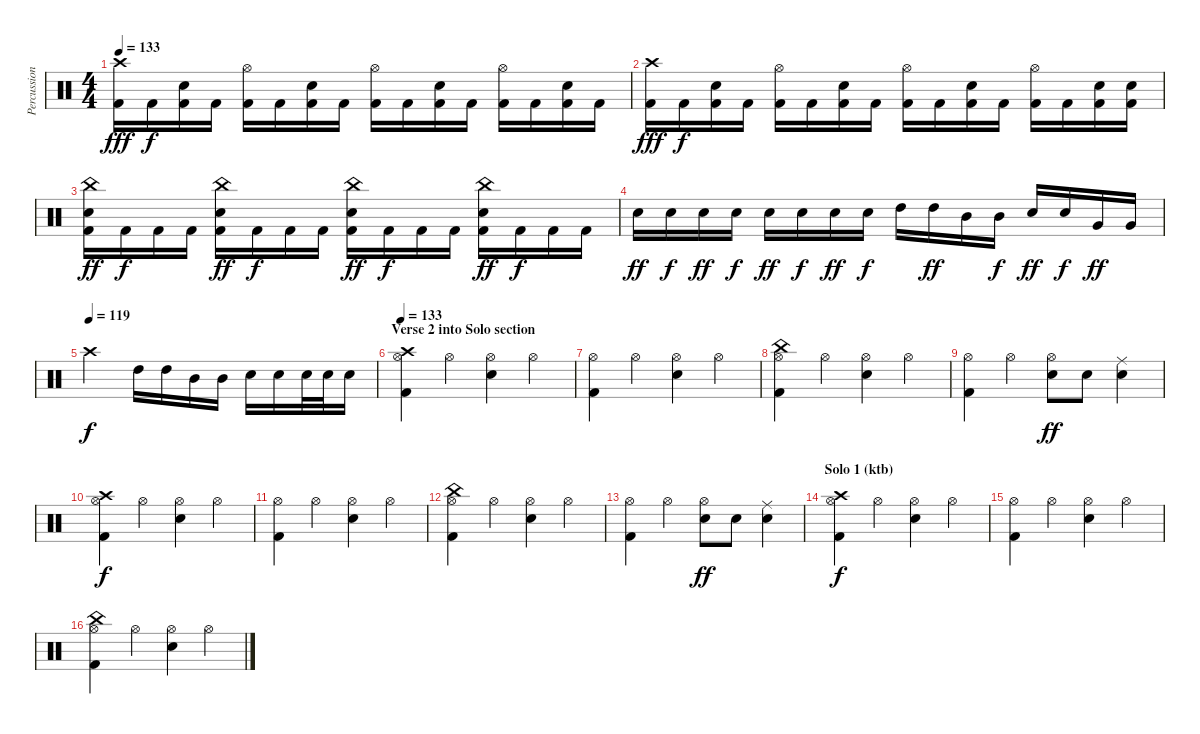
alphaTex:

\track ("Percussion" "Percussion") {instrument percussion}
\staff {score}
\articulation defaults
\ts (4 4)
\tempo 133
\clef neutral
\ks c
("Crash high (hit)" "Kick (hit) 2").16{dy fff volume 12} "Kick (hit) 2".16{dy f} ("Electric Snare (hit)" "Kick (hit) 2").16 "Kick (hit) 2".16 ("Hi-Hat (open)" "Kick (hit) 2").16 "Kick (hit) 2".16 ("Electric Snare (hit)" "Kick (hit) 2").16 "Kick (hit) 2".16 ("Hi-Hat (open)" "Kick (hit) 2").16 "Kick (hit) 2".16 ("Electric Snare (hit)" "Kick (hit) 2").16 "Kick (hit) 2".16 ("Hi-Hat (open)" "Kick (hit) 2").16 "Kick (hit) 2".16 ("Electric Snare (hit)" "Kick (hit) 2").16 "Kick (hit) 2".16 |
("Crash high (hit)" "Kick (hit) 2").16{dy fff volume 12} "Kick (hit) 2".16{dy f} ("Electric Snare (hit)" "Kick (hit) 2").16 "Kick (hit) 2".16 ("Hi-Hat (open)" "Kick (hit) 2").16 "Kick (hit) 2".16 ("Electric Snare (hit)" "Kick (hit) 2").16 "Kick (hit) 2".16 ("Hi-Hat (open)" "Kick (hit) 2").16 "Kick (hit) 2".16 ("Electric Snare (hit)" "Kick (hit) 2").16 "Kick (hit) 2".16 ("Hi-Hat (open)" "Kick (hit) 2").16 "Kick (hit) 2".16 ("Electric Snare (hit)" "Kick (hit) 2").16 ("Electric Snare (hit)" "Kick (hit) 2").16 |
("China (hit)" "Electric Snare (hit)" "Kick (hit) 2").16{dy ff} "Kick (hit) 2".16{dy f} "Kick (hit) 2".16 "Kick (hit) 2".16 ("China (hit)" "Electric Snare (hit)" "Kick (hit) 2").16{dy ff} "Kick (hit) 2".16{dy f} "Kick (hit) 2".16 "Kick (hit) 2".16 ("China (hit)" "Electric Snare (hit)" "Kick (hit) 2").16{dy ff} "Kick (hit) 2".16{dy f} "Kick (hit) 2".16 "Kick (hit) 2".16 ("China (hit)" "Electric Snare (hit)" "Kick (hit) 2").16{dy ff} "Kick (hit) 2".16{dy f} "Kick (hit) 2".16 "Kick (hit) 2".16 |
"Electric Snare (hit)".16{dy ff volume 13} "Electric Snare (hit)".16{dy f} "Electric Snare (hit)".16{dy ff} "Electric Snare (hit)".16{dy f} "Electric Snare (hit)".16{dy ff} "Electric Snare (hit)".16{dy f} "Electric Snare (hit)".16{dy ff} "Electric Snare (hit)".16{dy f} "High Tom (hit)".16 "High Tom (hit)".16{dy ff} "Mid Tom (hit)".16 "Mid Tom (hit)".16{dy f} "Electric Snare (hit)".16{dy ff} "Electric Snare (hit)".16{dy f} "Very Low Tom (hit)".16{dy ff} "Very Low Tom (hit)".16 |
\tempo (119)
"Crash high (hit)".2{dy f} "High Tom (hit)".16 "High Tom (hit)".16 "Mid Tom (hit)".16 "Mid Tom (hit)".16 "Electric Snare (hit)".16 "Electric Snare (hit)".16 "Electric Snare (hit)".32 "Electric Snare (hit)".32 "Electric Snare (hit)".16 |
\section ("" "Verse 2 into Solo section")
\tempo 133
("Hi-Hat (open)" "Crash high (hit)" "Kick (hit) 2").4 "Hi-Hat (open)".4 ("Hi-Hat (open)" "Electric Snare (hit)").4 "Hi-Hat (open)".4 |
("Hi-Hat (open)" "Kick (hit) 2").4 "Hi-Hat (open)".4 ("Hi-Hat (open)" "Electric Snare (hit)").4 "Hi-Hat (open)".4 |
("Hi-Hat (open)" "China (hit)" "Kick (hit) 2").4 "Hi-Hat (open)".4 ("Hi-Hat (open)" "Electric Snare (hit)").4 "Hi-Hat (open)".4 |
("Hi-Hat (open)" "Kick (hit) 2").4 "Hi-Hat (open)".4 ("Hi-Hat (open)" "Electric Snare (hit)").8{dy ff} "Electric Snare (hit)".8 ("Ride (middle)" "Electric Snare (hit)").4 |
("Hi-Hat (open)" "Crash high (hit)" "Kick (hit) 2").4{dy f} "Hi-Hat (open)".4 ("Hi-Hat (open)" "Electric Snare (hit)").4 "Hi-Hat (open)".4 |
("Hi-Hat (open)" "Kick (hit) 2").4 "Hi-Hat (open)".4 ("Hi-Hat (open)" "Electric Snare (hit)").4 "Hi-Hat (open)".4 |
("Hi-Hat (open)" "China (hit)" "Kick (hit) 2").4 "Hi-Hat (open)".4 ("Hi-Hat (open)" "Electric Snare (hit)").4 "Hi-Hat (open)".4 |
("Hi-Hat (open)" "Kick (hit) 2").4 "Hi-Hat (open)".4 ("Hi-Hat (open)" "Electric Snare (hit)").8{dy ff} "Electric Snare (hit)".8 ("Ride (middle)" "Electric Snare (hit)").4 |
\section ("" "Solo 1 (ktb)")
("Hi-Hat (open)" "Crash high (hit)" "Kick (hit) 2").4{dy f} "Hi-Hat (open)".4 ("Hi-Hat (open)" "Electric Snare (hit)").4 "Hi-Hat (open)".4 |
("Hi-Hat (open)" "Kick (hit) 2").4 "Hi-Hat (open)".4 ("Hi-Hat (open)" "Electric Snare (hit)").4 "Hi-Hat (open)".4 |
("Hi-Hat (open)" "China (hit)" "Kick (hit) 2").4 "Hi-Hat (open)".4 ("Hi-Hat (open)" "Electric Snare (hit)").4 "Hi-Hat (open)".4
